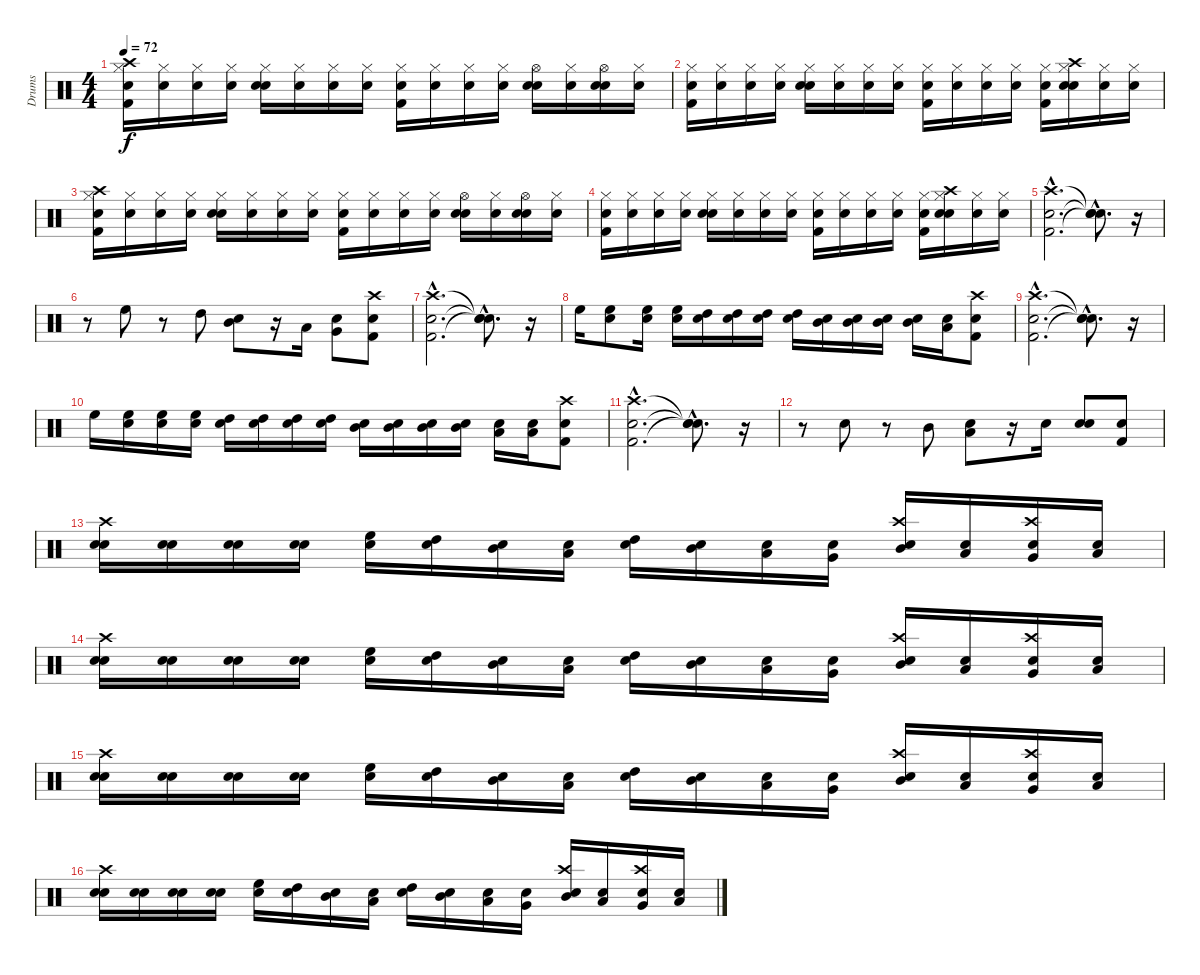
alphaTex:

\track ("Drums" "Drums") {instrument percussion}
\staff {score}
\articulation defaults
\ts (4 4)
\tempo 72
\clef neutral
\ks c
("Snare (hit)" "Kick (hit) 2" "Hi-Hat (closed)" "Crash high (hit)").16{dy f} ("Snare (hit)" "Hi-Hat (closed)").16 ("Snare (hit)" "Hi-Hat (closed)").16 ("Snare (hit)" "Hi-Hat (closed)").16 ("Snare (hit)" "Snare (hit) 2" "Hi-Hat (closed)").16 ("Snare (hit)" "Hi-Hat (closed)").16 ("Snare (hit)" "Hi-Hat (closed)").16 ("Snare (hit)" "Hi-Hat (closed)").16 ("Snare (hit)" "Kick (hit) 2" "Hi-Hat (closed)").16 ("Snare (hit)" "Hi-Hat (closed)").16 ("Snare (hit)" "Hi-Hat (closed)").16 ("Snare (hit)" "Hi-Hat (closed)").16 ("Snare (hit)" "Snare (hit) 2" "Hi-Hat (open)").16 ("Snare (hit)" "Hi-Hat (closed)").16 ("Snare (hit)" "Snare (hit) 2" "Hi-Hat (open)").16 ("Snare (hit)" "Hi-Hat (closed)").16 |
("Snare (hit)" "Kick (hit) 2" "Hi-Hat (closed)").16 ("Snare (hit)" "Hi-Hat (closed)").16 ("Snare (hit)" "Hi-Hat (closed)").16 ("Snare (hit)" "Hi-Hat (closed)").16 ("Snare (hit)" "Snare (hit) 2" "Hi-Hat (closed)").16 ("Snare (hit)" "Hi-Hat (closed)").16 ("Snare (hit)" "Hi-Hat (closed)").16 ("Snare (hit)" "Hi-Hat (closed)").16 ("Snare (hit)" "Kick (hit) 2" "Hi-Hat (closed)").16 ("Snare (hit)" "Hi-Hat (closed)").16 ("Snare (hit)" "Hi-Hat (closed)").16 ("Snare (hit)" "Hi-Hat (closed)").16 ("Snare (hit)" "Kick (hit) 2" "Hi-Hat (closed)").16 ("Snare (hit)" "Snare (hit) 2" "Hi-Hat (closed)" "Crash high (hit)").16 ("Snare (hit)" "Hi-Hat (closed)").16 ("Snare (hit)" "Hi-Hat (closed)").16 |
("Snare (hit)" "Kick (hit) 2" "Hi-Hat (closed)" "Crash high (hit)").16 ("Snare (hit)" "Hi-Hat (closed)").16 ("Snare (hit)" "Hi-Hat (closed)").16 ("Snare (hit)" "Hi-Hat (closed)").16 ("Snare (hit)" "Snare (hit) 2" "Hi-Hat (closed)").16 ("Snare (hit)" "Hi-Hat (closed)").16 ("Snare (hit)" "Hi-Hat (closed)").16 ("Snare (hit)" "Hi-Hat (closed)").16 ("Snare (hit)" "Kick (hit) 2" "Hi-Hat (closed)").16 ("Snare (hit)" "Hi-Hat (closed)").16 ("Snare (hit)" "Hi-Hat (closed)").16 ("Snare (hit)" "Hi-Hat (closed)").16 ("Snare (hit)" "Snare (hit) 2" "Hi-Hat (open)").16 ("Snare (hit)" "Hi-Hat (closed)").16 ("Snare (hit)" "Snare (hit) 2" "Hi-Hat (open)").16 ("Snare (hit)" "Hi-Hat (closed)").16 |
("Snare (hit)" "Kick (hit) 2" "Hi-Hat (closed)").16 ("Snare (hit)" "Hi-Hat (closed)").16 ("Snare (hit)" "Hi-Hat (closed)").16 ("Snare (hit)" "Hi-Hat (closed)").16 ("Snare (hit)" "Snare (hit) 2" "Hi-Hat (closed)").16 ("Snare (hit)" "Hi-Hat (closed)").16 ("Snare (hit)" "Hi-Hat (closed)").16 ("Snare (hit)" "Hi-Hat (closed)").16 ("Snare (hit)" "Kick (hit) 2" "Hi-Hat (closed)").16 ("Snare (hit)" "Hi-Hat (closed)").16 ("Snare (hit)" "Hi-Hat (closed)").16 ("Snare (hit)" "Hi-Hat (closed)").16 ("Snare (hit)" "Kick (hit) 2" "Hi-Hat (closed)").16 ("Snare (hit)" "Snare (hit) 2" "Hi-Hat (closed)" "Crash high (hit)").16 ("Snare (hit)" "Hi-Hat (closed)").16 ("Snare (hit)" "Hi-Hat (closed)").16 |
("Snare (hit)"{hac} "Kick (hit) 2"{hac} "Crash high (hit)"{hac}).2{d} ("Snare (hit)"{hac t} "Snare (hit)"{hac t} "Snare (hit)"{hac t}).8{d} r.16 |
r.8 "High Floor Tom (hit)".8 r.8 "High Tom (hit)".8 ("Snare (hit)" "Mid Tom (hit)").8 r.16 "Low Tom (hit)".16 ("Snare (hit)" "Very Low Tom (hit)").8 ("Snare (hit)" "Kick (hit) 2" "Crash high (hit)").8 |
("Snare (hit)"{hac} "Kick (hit) 2"{hac} "Crash high (hit)"{hac}).2{d} ("Snare (hit)"{hac t} "Snare (hit)"{hac t} "Snare (hit)"{hac t}).8{d} r.16 |
"High Floor Tom (hit)".16 ("Snare (hit)" "High Floor Tom (hit)").8 ("Snare (hit)" "High Floor Tom (hit)").16 ("Snare (hit)" "High Floor Tom (hit)").16 ("Snare (hit)" "High Tom (hit)").16 ("Snare (hit)" "High Tom (hit)").16 ("Snare (hit)" "High Tom (hit)").16 ("Snare (hit)" "High Tom (hit)").16 ("Snare (hit)" "Mid Tom (hit)").16 ("Snare (hit)" "Mid Tom (hit)").16 ("Snare (hit)" "Mid Tom (hit)").16 ("Snare (hit)" "Mid Tom (hit)").16 ("Snare (hit)" "Low Tom (hit)").16 ("Snare (hit)" "Kick (hit) 2" "Crash high (hit)").8 |
("Snare (hit)"{hac} "Kick (hit) 2"{hac} "Crash high (hit)"{hac}).2{d} ("Snare (hit)"{hac t} "Snare (hit)"{hac t} "Snare (hit)"{hac t}).8{d} r.16 |
"High Floor Tom (hit)".16 ("Snare (hit)" "High Floor Tom (hit)").16 ("Snare (hit)" "High Floor Tom (hit)").16 ("Snare (hit)" "High Floor Tom (hit)").16 ("Snare (hit)" "High Tom (hit)").16 ("Snare (hit)" "High Tom (hit)").16 ("Snare (hit)" "High Tom (hit)").16 ("Snare (hit)" "High Tom (hit)").16 ("Snare (hit)" "Mid Tom (hit)").16 ("Snare (hit)" "Mid Tom (hit)").16 ("Snare (hit)" "Mid Tom (hit)").16 ("Snare (hit)" "Mid Tom (hit)").16 ("Snare (hit)" "Low Tom (hit)").16 ("Snare (hit)" "Low Tom (hit)").16 ("Snare (hit)" "Kick (hit) 2" "Crash high (hit)").8 |
("Snare (hit)"{hac} "Kick (hit) 2"{hac} "Crash high (hit)"{hac}).2{d} ("Snare (hit)"{hac t} "Snare (hit)"{hac t} "Snare (hit)"{hac t}).8{d} r.16 |
r.8 "Snare (hit) 2".8 r.8 "Mid Tom (hit)".8 ("Snare (hit)" "Low Tom (hit)").8 r.16 "Snare (hit) 2".16 ("Snare (hit)" "Snare (hit) 2").8 ("Snare (hit)" "Kick (hit) 2").8 |
("Snare (hit)" "Snare (hit) 2" "Crash high (hit)").16 ("Snare (hit)" "Snare (hit) 2").16 ("Snare (hit)" "Snare (hit) 2").16 ("Snare (hit)" "Snare (hit) 2").16 ("Snare (hit)" "High Floor Tom (hit)").16 ("Snare (hit)" "High Tom (hit)").16 ("Snare (hit)" "Mid Tom (hit)").16 ("Snare (hit)" "Low Tom (hit)").16 ("Snare (hit)" "High Tom (hit)").16 ("Snare (hit)" "Mid Tom (hit)").16 ("Snare (hit)" "Low Tom (hit)").16 ("Snare (hit)" "Very Low Tom (hit)").16 ("Snare (hit)" "Mid Tom (hit)" "Crash high (hit)").16 ("Snare (hit)" "Low Tom (hit)").16 ("Snare (hit)" "Very Low Tom (hit)" "Crash high (hit)").16 ("Snare (hit)" "Low Floor Tom (hit)").16 |
("Snare (hit)" "Snare (hit) 2" "Crash high (hit)").16 ("Snare (hit)" "Snare (hit) 2").16 ("Snare (hit)" "Snare (hit) 2").16 ("Snare (hit)" "Snare (hit) 2").16 ("Snare (hit)" "High Floor Tom (hit)").16 ("Snare (hit)" "High Tom (hit)").16 ("Snare (hit)" "Mid Tom (hit)").16 ("Snare (hit)" "Low Tom (hit)").16 ("Snare (hit)" "High Tom (hit)").16 ("Snare (hit)" "Mid Tom (hit)").16 ("Snare (hit)" "Low Tom (hit)").16 ("Snare (hit)" "Very Low Tom (hit)").16 ("Snare (hit)" "Mid Tom (hit)" "Crash high (hit)").16 ("Snare (hit)" "Low Tom (hit)").16 ("Snare (hit)" "Very Low Tom (hit)" "Crash high (hit)").16 ("Snare (hit)" "Low Floor Tom (hit)").16 |
("Snare (hit)" "Snare (hit) 2" "Crash high (hit)").16 ("Snare (hit)" "Snare (hit) 2").16 ("Snare (hit)" "Snare (hit) 2").16 ("Snare (hit)" "Snare (hit) 2").16 ("Snare (hit)" "High Floor Tom (hit)").16 ("Snare (hit)" "High Tom (hit)").16 ("Snare (hit)" "Mid Tom (hit)").16 ("Snare (hit)" "Low Tom (hit)").16 ("Snare (hit)" "High Tom (hit)").16 ("Snare (hit)" "Mid Tom (hit)").16 ("Snare (hit)" "Low Tom (hit)").16 ("Snare (hit)" "Very Low Tom (hit)").16 ("Snare (hit)" "Mid Tom (hit)" "Crash high (hit)").16 ("Snare (hit)" "Low Tom (hit)").16 ("Snare (hit)" "Very Low Tom (hit)" "Crash high (hit)").16 ("Snare (hit)" "Low Floor Tom (hit)").16 |
("Snare (hit)" "Snare (hit) 2" "Crash high (hit)").16 ("Snare (hit)" "Snare (hit) 2").16 ("Snare (hit)" "Snare (hit) 2").16 ("Snare (hit)" "Snare (hit) 2").16 ("Snare (hit)" "High Floor Tom (hit)").16 ("Snare (hit)" "High Tom (hit)").16 ("Snare (hit)" "Mid Tom (hit)").16 ("Snare (hit)" "Low Tom (hit)").16 ("Snare (hit)" "High Tom (hit)").16 ("Snare (hit)" "Mid Tom (hit)").16 ("Snare (hit)" "Low Tom (hit)").16 ("Snare (hit)" "Very Low Tom (hit)").16 ("Snare (hit)" "Mid Tom (hit)" "Crash high (hit)").16 ("Snare (hit)" "Low Tom (hit)").16 ("Snare (hit)" "Very Low Tom (hit)" "Crash high (hit)").16 ("Snare (hit)" "Low Floor Tom (hit)").16
